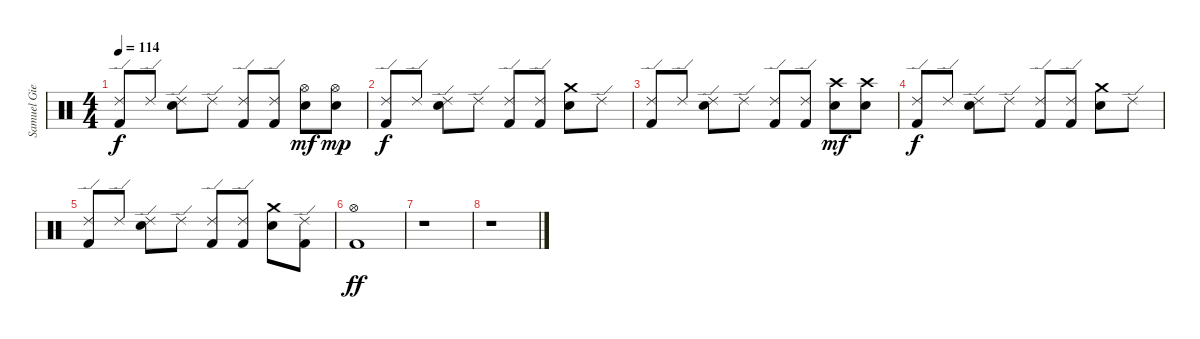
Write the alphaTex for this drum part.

\track ("Samuel Giers - Drum" "Samuel Gie") {instrument percussion}
\staff {score}
\articulation defaults
\ts (4 4)
\tempo 114
\clef neutral
\ks c
("Ride (edge) 2" "Kick (hit) 2").8{dy f} "Ride (edge) 2".8 ("Ride (edge) 2" "Snare (hit) 2").8 "Ride (edge) 2".8 ("Ride (edge) 2" "Kick (hit) 2").8 ("Ride (edge) 2" "Kick (hit) 2").8 ("Hi-Hat (open)" "Snare (hit) 2").8{dy mf} ("Hi-Hat (open)" "Snare (hit) 2").8{dy mp} |
("Ride (edge) 2" "Kick (hit) 2").8{dy f} "Ride (edge) 2".8 ("Ride (edge) 2" "Snare (hit) 2").8 "Ride (edge) 2".8 ("Ride (edge) 2" "Kick (hit) 2").8 ("Ride (edge) 2" "Kick (hit) 2").8 ("Crash medium (hit)" "Snare (hit) 2").8 "Ride (edge) 2".8 |
("Ride (edge) 2" "Kick (hit) 2").8 "Ride (edge) 2".8 ("Ride (edge) 2" "Snare (hit) 2").8 "Ride (edge) 2".8 ("Ride (edge) 2" "Kick (hit) 2").8 ("Ride (edge) 2" "Kick (hit) 2").8 ("Crash high (hit)" "Snare (hit) 2").8{dy mf} ("Crash high (hit)" "Snare (hit) 2").8 |
("Ride (edge) 2" "Kick (hit) 2").8{dy f} "Ride (edge) 2".8 ("Ride (edge) 2" "Snare (hit) 2").8 "Ride (edge) 2".8 ("Ride (edge) 2" "Kick (hit) 2").8 ("Ride (edge) 2" "Kick (hit) 2").8 ("Crash medium (hit)" "Snare (hit) 2").8 "Ride (edge) 2".8 |
("Ride (edge) 2" "Kick (hit) 2").8 "Ride (edge) 2".8 ("Ride (edge) 2" "Snare (hit) 2").8 "Ride (edge) 2".8 ("Ride (edge) 2" "Kick (hit) 2").8 ("Ride (edge) 2" "Kick (hit) 2").8 ("Crash medium (hit)" "Snare (hit) 2").8 ("Ride (edge) 2" "Kick (hit) 2").8 |
("Hi-Hat (open)" "Kick (hit) 2").1{dy ff} |
r.1 |
r.1
